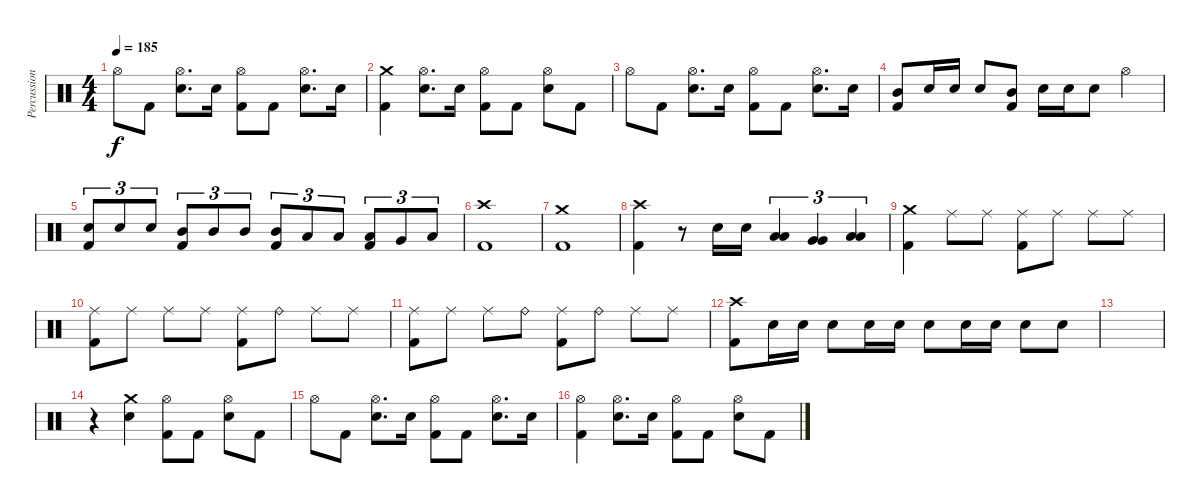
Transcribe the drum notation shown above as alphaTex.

\track ("Percussion" "Percussion") {instrument percussion}
\staff {score}
\articulation defaults
\ts (4 4)
\tempo 185
\clef neutral
\ks c "Hi-Hat (open)".8{dy f} "Kick (hit) 2".8
("Hi-Hat (open)" "Electric Snare (hit)").8{d} "Electric Snare (hit)".16 ("Hi-Hat (open)" "Kick (hit) 2").8 "Kick (hit) 2".8 ("Hi-Hat (open)" "Electric Snare (hit)").8{d} "Electric Snare (hit)".16 |
("Crash medium (hit)" "Kick (hit) 2").4 ("Hi-Hat (open)" "Electric Snare (hit)").8{d} "Electric Snare (hit)".16 ("Hi-Hat (open)" "Kick (hit) 2").8 "Kick (hit) 2".8 ("Hi-Hat (open)" "Electric Snare (hit)").8 "Kick (hit) 2".8 |
"Hi-Hat (open)".8 "Kick (hit) 2".8 ("Hi-Hat (open)" "Electric Snare (hit)").8{d} "Electric Snare (hit)".16 ("Hi-Hat (open)" "Kick (hit) 2").8 "Kick (hit) 2".8 ("Hi-Hat (open)" "Electric Snare (hit)").8{d} "Electric Snare (hit)".16 |
("Mid Tom (hit)" "Kick (hit) 2").8 "Electric Snare (hit)".16 "Electric Snare (hit)".16 "Electric Snare (hit)".8 ("Mid Tom (hit)" "Kick (hit) 2").8 "Electric Snare (hit)".16 "Electric Snare (hit)".16 "Electric Snare (hit)".8 "Hi-Hat (open)".4 |
("Electric Snare (hit)" "Kick (hit) 2").8{tu (3 2)} "Electric Snare (hit)".8{tu (3 2)} "Electric Snare (hit)".8{tu (3 2)} ("Mid Tom (hit)" "Kick (hit) 2").8{tu (3 2)} "Mid Tom (hit)".8{tu (3 2)} "Mid Tom (hit)".8{tu (3 2)} ("Mid Tom (hit)" "Kick (hit) 2").8{tu (3 2)} "Low Tom (hit)".8{tu (3 2)} "Low Tom (hit)".8{tu (3 2)} ("Low Tom (hit)" "Kick (hit) 2").8{tu (3 2)} "Very Low Tom (hit)".8{tu (3 2)} "Low Floor Tom (hit)".8{tu (3 2)} |
("Crash high (hit)" "Kick (hit) 2").1 |
("Crash medium (hit)" "Kick (hit) 2").1 |
("Crash high (hit)" "Kick (hit) 2").4 r.8 "Electric Snare (hit)".16 "Electric Snare (hit)".16 ("Low Tom (hit)" "Low Tom (hit)").4{tu (3 2)} ("Very Low Tom (hit)" "Very Low Tom (hit)").4{tu (3 2)} ("Low Floor Tom (hit)" "Low Floor Tom (hit)").4{tu (3 2)} |
("Crash medium (hit)" "Kick (hit) 2").4 "Ride (middle)".8 "Ride (middle)".8 ("Ride (middle)" "Kick (hit) 2").8 "Ride (middle)".8 "Ride (middle)".8 "Ride (middle)".8 |
("Ride (middle)" "Kick (hit) 2").8 "Ride (middle)".8 "Ride (middle)".8 "Ride (middle)".8 ("Ride (middle)" "Kick (hit) 2").8 "Ride (bell)".8 "Ride (middle)".8 "Ride (middle)".8 |
("Ride (middle)" "Kick (hit) 2").8 "Ride (middle)".8 "Ride (middle)".8 "Ride (bell)".8 ("Ride (middle)" "Kick (hit) 2").8 "Ride (bell)".8 "Ride (middle)".8 "Ride (middle)".8 |
("Crash high (hit)" "Kick (hit) 2").8 "Electric Snare (hit)".16 "Electric Snare (hit)".16 "Electric Snare (hit)".8 "Electric Snare (hit)".16 "Electric Snare (hit)".16 "Electric Snare (hit)".8 "Electric Snare (hit)".16 "Electric Snare (hit)".16 "Electric Snare (hit)".8 "Electric Snare (hit)".8 |
|
r.4 ("Crash medium (hit)" "Electric Snare (hit)").4 ("Hi-Hat (open)" "Kick (hit) 2").8 "Kick (hit) 2".8 ("Hi-Hat (open)" "Electric Snare (hit)").8 "Kick (hit) 2".8 |
"Hi-Hat (open)".8 "Kick (hit) 2".8 ("Hi-Hat (open)" "Electric Snare (hit)").8{d} "Electric Snare (hit)".16 ("Hi-Hat (open)" "Kick (hit) 2").8 "Kick (hit) 2".8 ("Hi-Hat (open)" "Electric Snare (hit)").8{d} "Electric Snare (hit)".16 |
("Hi-Hat (open)" "Kick (hit) 2").4 ("Hi-Hat (open)" "Electric Snare (hit)").8{d} "Electric Snare (hit)".16 ("Hi-Hat (open)" "Kick (hit) 2").8 "Kick (hit) 2".8 ("Hi-Hat (open)" "Electric Snare (hit)").8 "Kick (hit) 2".8
